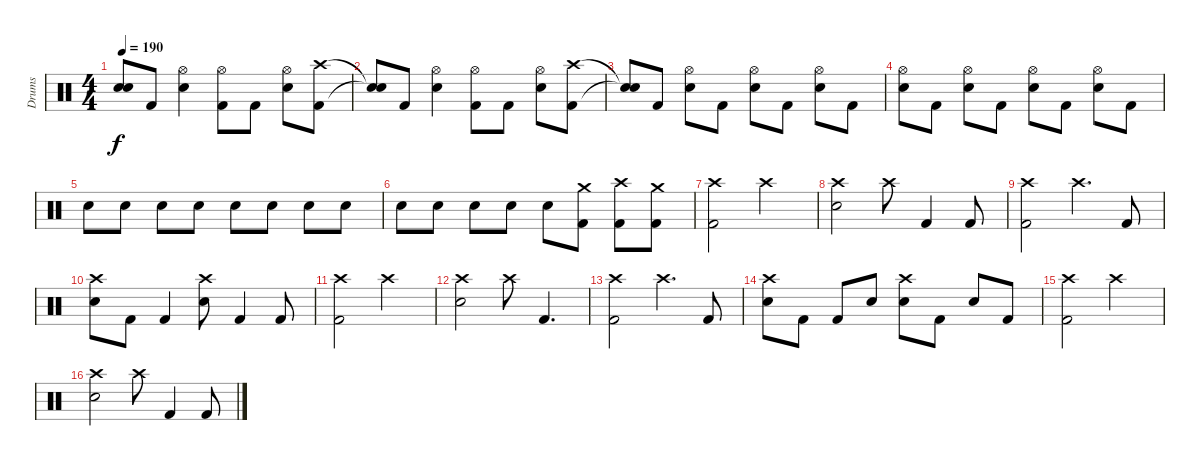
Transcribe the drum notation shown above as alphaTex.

\track ("Drums" "Drums") {instrument percussion}
\staff {score}
\articulation defaults
\ts (4 4)
\tempo 190
\clef neutral
\ks c
("Snare (hit)"{t} "Snare (hit)"{t}).8{dy f} "Kick (hit) 2".8 ("Hi-Hat (open)" "Electric Snare (hit)").4 ("Hi-Hat (open)" "Kick (hit) 2").8 "Kick (hit) 2".8 ("Hi-Hat (open)" "Electric Snare (hit)").8 ("Crash high (hit)" "Kick (hit) 2").8 |
("Snare (hit)"{t} "Snare (hit)"{t}).8 "Kick (hit) 2".8 ("Hi-Hat (open)" "Electric Snare (hit)").4 ("Hi-Hat (open)" "Kick (hit) 2").8 "Kick (hit) 2".8 ("Hi-Hat (open)" "Electric Snare (hit)").8 ("Crash high (hit)" "Kick (hit) 2").8 |
("Snare (hit)"{t} "Snare (hit)"{t}).8 "Kick (hit) 2".8 ("Hi-Hat (open)" "Electric Snare (hit)").8 "Kick (hit) 2".8 ("Hi-Hat (open)" "Electric Snare (hit)").8 "Kick (hit) 2".8 ("Hi-Hat (open)" "Electric Snare (hit)").8 "Kick (hit) 2".8 |
("Hi-Hat (open)" "Electric Snare (hit)").8 "Kick (hit) 2".8 ("Hi-Hat (open)" "Electric Snare (hit)").8 "Kick (hit) 2".8 ("Hi-Hat (open)" "Electric Snare (hit)").8 "Kick (hit) 2".8 ("Hi-Hat (open)" "Electric Snare (hit)").8 "Kick (hit) 2".8 |
"Electric Snare (hit)".8 "Electric Snare (hit)".8 "Electric Snare (hit)".8 "Electric Snare (hit)".8 "Electric Snare (hit)".8 "Electric Snare (hit)".8 "Electric Snare (hit)".8 "Electric Snare (hit)".8 |
"Electric Snare (hit)".8 "Electric Snare (hit)".8 "Electric Snare (hit)".8 "Electric Snare (hit)".8 "Electric Snare (hit)".8 ("Crash medium (hit)" "Kick (hit) 2").8 ("Crash high (hit)" "Kick (hit) 2").8 ("Crash medium (hit)" "Kick (hit) 2").8 |
("Crash high (hit)" "Kick (hit) 2").2 "Crash high (hit)".2 |
("Crash high (hit)" "Electric Snare (hit)").2 "Crash high (hit)".8 "Kick (hit) 2".4 "Kick (hit) 2".8 |
("Crash high (hit)" "Kick (hit) 2").2 "Crash high (hit)".4{d} "Kick (hit) 2".8 |
("Crash high (hit)" "Electric Snare (hit)").8 "Kick (hit) 2".8 "Kick (hit) 2".4 ("Crash high (hit)" "Electric Snare (hit)").8 "Kick (hit) 2".4 "Kick (hit) 2".8 |
("Crash high (hit)" "Kick (hit) 2").2 "Crash high (hit)".2 |
("Crash high (hit)" "Electric Snare (hit)").2 "Crash high (hit)".8 "Kick (hit) 2".4{d} |
("Crash high (hit)" "Kick (hit) 2").2 "Crash high (hit)".4{d} "Kick (hit) 2".8 |
("Crash high (hit)" "Electric Snare (hit)").8 "Kick (hit) 2".8 "Kick (hit) 2".8 "Electric Snare (hit)".8 ("Crash high (hit)" "Electric Snare (hit)").8 "Kick (hit) 2".8 "Electric Snare (hit)".8 "Kick (hit) 2".8 |
("Crash high (hit)" "Kick (hit) 2").2 "Crash high (hit)".2 |
("Crash high (hit)" "Electric Snare (hit)").2 "Crash high (hit)".8 "Kick (hit) 2".4 "Kick (hit) 2".8
